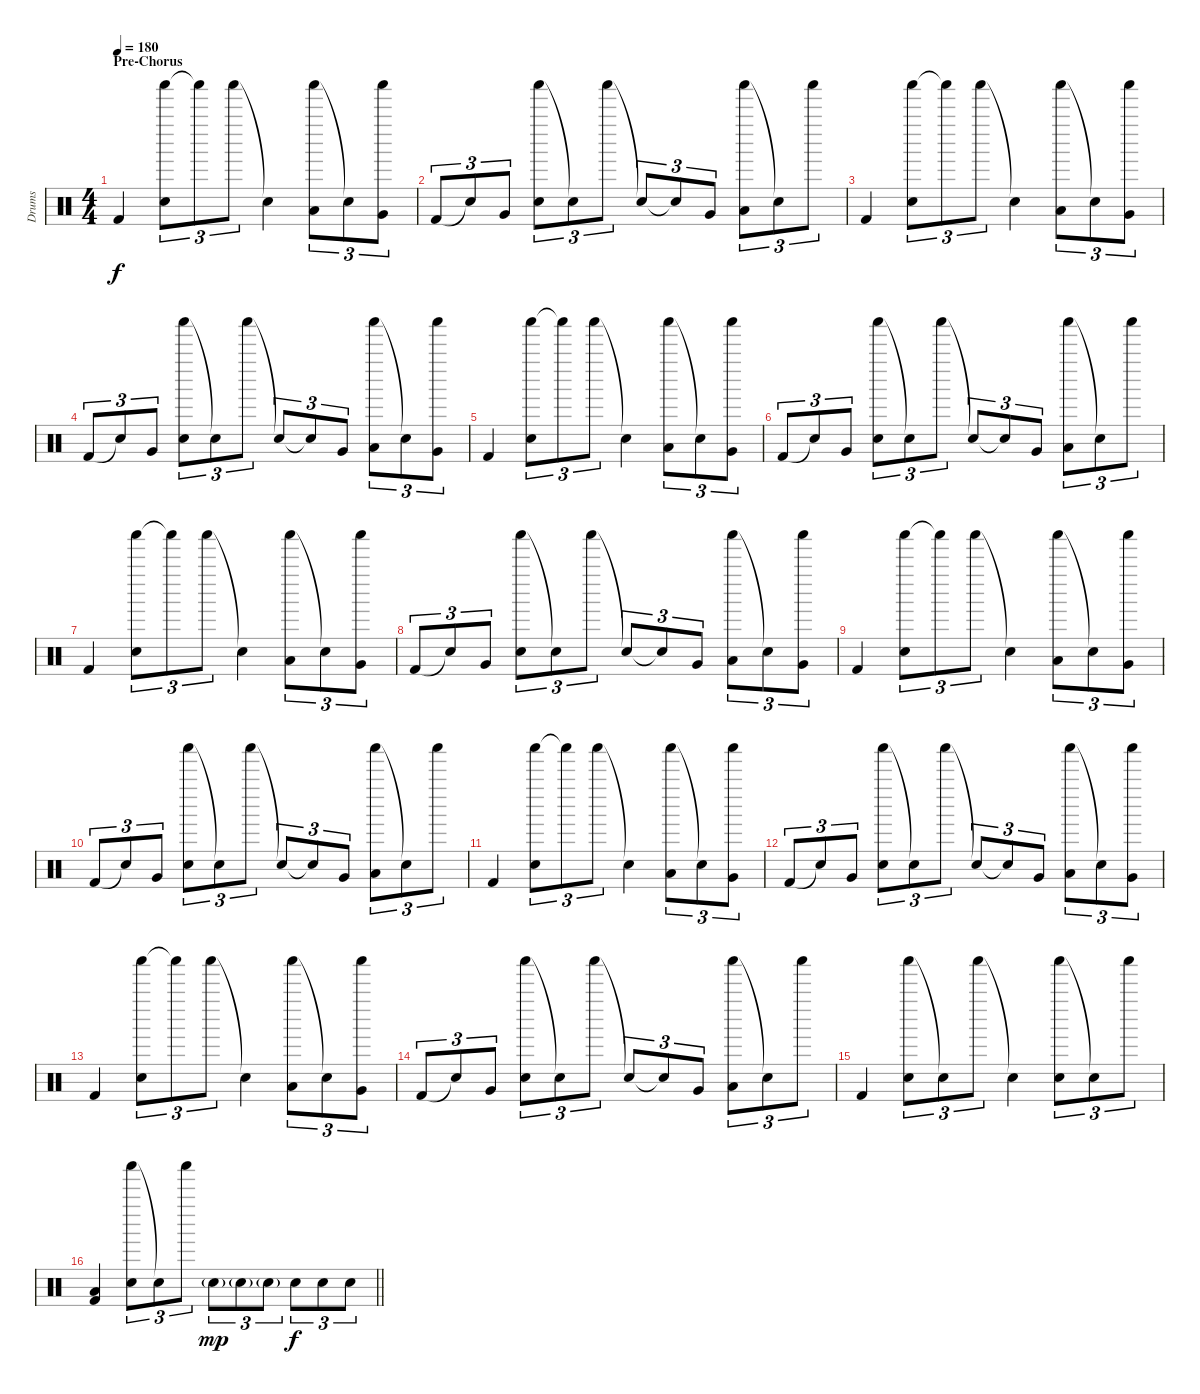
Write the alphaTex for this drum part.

\track ("Drums" "Drums") {instrument percussion}
\staff {score}
\articulation defaults
\ts (4 4)
\section ("" "Pre-Chorus")
\tempo 180
\clef neutral
\ks c "Kick (hit) 2".4{dy f}
("Shaker (hit)" "Electric Snare (hit)").8{tu (3 2)} "Shaker (hit)"{t}.8{tu (3 2)} "Shaker (hit)".8{tu (3 2)} "Snare (hit)"{t}.4 ("Shaker (hit)" "Low Tom (hit)").8{tu (3 2)} "Snare (hit)"{t}.8{tu (3 2)} ("Shaker (hit)" "Very Low Tom (hit)").8{tu (3 2)} |
"Kick (hit) 2".8{tu (3 2)} "Snare (hit)"{t}.8{tu (3 2)} "Very Low Tom (hit)".8{tu (3 2)} ("Shaker (hit)" "Electric Snare (hit)").8{tu (3 2)} "Snare (hit)"{t}.8{tu (3 2)} "Shaker (hit)".8{tu (3 2)} "Snare (hit)"{t}.8{tu (3 2)} "Snare (hit)"{t}.8{tu (3 2)} "Very Low Tom (hit)".8{tu (3 2)} ("Shaker (hit)" "Low Tom (hit)").8{tu (3 2)} "Snare (hit)"{t}.8{tu (3 2)} "Shaker (hit)".8{tu (3 2)} |
"Kick (hit) 2".4 ("Shaker (hit)" "Electric Snare (hit)").8{tu (3 2)} "Shaker (hit)"{t}.8{tu (3 2)} "Shaker (hit)".8{tu (3 2)} "Snare (hit)"{t}.4 ("Shaker (hit)" "Low Tom (hit)").8{tu (3 2)} "Snare (hit)"{t}.8{tu (3 2)} ("Shaker (hit)" "Very Low Tom (hit)").8{tu (3 2)} |
"Kick (hit) 2".8{tu (3 2)} "Snare (hit)"{t}.8{tu (3 2)} "Very Low Tom (hit)".8{tu (3 2)} ("Shaker (hit)" "Electric Snare (hit)").8{tu (3 2)} "Snare (hit)"{t}.8{tu (3 2)} "Shaker (hit)".8{tu (3 2)} "Snare (hit)"{t}.8{tu (3 2)} "Snare (hit)"{t}.8{tu (3 2)} "Very Low Tom (hit)".8{tu (3 2)} ("Shaker (hit)" "Low Tom (hit)").8{tu (3 2)} "Snare (hit)"{t}.8{tu (3 2)} ("Shaker (hit)" "Very Low Tom (hit)").8{tu (3 2)} |
"Kick (hit) 2".4 ("Shaker (hit)" "Electric Snare (hit)").8{tu (3 2)} "Shaker (hit)"{t}.8{tu (3 2)} "Shaker (hit)".8{tu (3 2)} "Snare (hit)"{t}.4 ("Shaker (hit)" "Low Tom (hit)").8{tu (3 2)} "Snare (hit)"{t}.8{tu (3 2)} ("Shaker (hit)" "Very Low Tom (hit)").8{tu (3 2)} |
"Kick (hit) 2".8{tu (3 2)} "Snare (hit)"{t}.8{tu (3 2)} "Very Low Tom (hit)".8{tu (3 2)} ("Shaker (hit)" "Electric Snare (hit)").8{tu (3 2)} "Snare (hit)"{t}.8{tu (3 2)} "Shaker (hit)".8{tu (3 2)} "Snare (hit)"{t}.8{tu (3 2)} "Snare (hit)"{t}.8{tu (3 2)} "Very Low Tom (hit)".8{tu (3 2)} ("Shaker (hit)" "Low Tom (hit)").8{tu (3 2)} "Snare (hit)"{t}.8{tu (3 2)} "Shaker (hit)".8{tu (3 2)} |
"Kick (hit) 2".4 ("Shaker (hit)" "Electric Snare (hit)").8{tu (3 2)} "Shaker (hit)"{t}.8{tu (3 2)} "Shaker (hit)".8{tu (3 2)} "Snare (hit)"{t}.4 ("Shaker (hit)" "Low Tom (hit)").8{tu (3 2)} "Snare (hit)"{t}.8{tu (3 2)} ("Shaker (hit)" "Very Low Tom (hit)").8{tu (3 2)} |
"Kick (hit) 2".8{tu (3 2)} "Snare (hit)"{t}.8{tu (3 2)} "Very Low Tom (hit)".8{tu (3 2)} ("Shaker (hit)" "Electric Snare (hit)").8{tu (3 2)} "Snare (hit)"{t}.8{tu (3 2)} "Shaker (hit)".8{tu (3 2)} "Snare (hit)"{t}.8{tu (3 2)} "Snare (hit)"{t}.8{tu (3 2)} "Very Low Tom (hit)".8{tu (3 2)} ("Shaker (hit)" "Low Tom (hit)").8{tu (3 2)} "Snare (hit)"{t}.8{tu (3 2)} ("Shaker (hit)" "Very Low Tom (hit)").8{tu (3 2)} |
"Kick (hit) 2".4 ("Shaker (hit)" "Electric Snare (hit)").8{tu (3 2)} "Shaker (hit)"{t}.8{tu (3 2)} "Shaker (hit)".8{tu (3 2)} "Snare (hit)"{t}.4 ("Shaker (hit)" "Low Tom (hit)").8{tu (3 2)} "Snare (hit)"{t}.8{tu (3 2)} ("Shaker (hit)" "Very Low Tom (hit)").8{tu (3 2)} |
"Kick (hit) 2".8{tu (3 2)} "Snare (hit)"{t}.8{tu (3 2)} "Very Low Tom (hit)".8{tu (3 2)} ("Shaker (hit)" "Electric Snare (hit)").8{tu (3 2)} "Snare (hit)"{t}.8{tu (3 2)} "Shaker (hit)".8{tu (3 2)} "Snare (hit)"{t}.8{tu (3 2)} "Snare (hit)"{t}.8{tu (3 2)} "Very Low Tom (hit)".8{tu (3 2)} ("Shaker (hit)" "Low Tom (hit)").8{tu (3 2)} "Snare (hit)"{t}.8{tu (3 2)} "Shaker (hit)".8{tu (3 2)} |
"Kick (hit) 2".4 ("Shaker (hit)" "Electric Snare (hit)").8{tu (3 2)} "Shaker (hit)"{t}.8{tu (3 2)} "Shaker (hit)".8{tu (3 2)} "Snare (hit)"{t}.4 ("Shaker (hit)" "Low Tom (hit)").8{tu (3 2)} "Snare (hit)"{t}.8{tu (3 2)} ("Shaker (hit)" "Very Low Tom (hit)").8{tu (3 2)} |
"Kick (hit) 2".8{tu (3 2)} "Snare (hit)"{t}.8{tu (3 2)} "Very Low Tom (hit)".8{tu (3 2)} ("Shaker (hit)" "Electric Snare (hit)").8{tu (3 2)} "Snare (hit)"{t}.8{tu (3 2)} "Shaker (hit)".8{tu (3 2)} "Snare (hit)"{t}.8{tu (3 2)} "Snare (hit)"{t}.8{tu (3 2)} "Very Low Tom (hit)".8{tu (3 2)} ("Shaker (hit)" "Low Tom (hit)").8{tu (3 2)} "Snare (hit)"{t}.8{tu (3 2)} ("Shaker (hit)" "Very Low Tom (hit)").8{tu (3 2)} |
"Kick (hit) 2".4 ("Shaker (hit)" "Electric Snare (hit)").8{tu (3 2)} "Shaker (hit)"{t}.8{tu (3 2)} "Shaker (hit)".8{tu (3 2)} "Snare (hit)"{t}.4 ("Shaker (hit)" "Low Tom (hit)").8{tu (3 2)} "Snare (hit)"{t}.8{tu (3 2)} ("Shaker (hit)" "Very Low Tom (hit)").8{tu (3 2)} |
"Kick (hit) 2".8{tu (3 2)} "Snare (hit)"{t}.8{tu (3 2)} "Very Low Tom (hit)".8{tu (3 2)} ("Shaker (hit)" "Electric Snare (hit)").8{tu (3 2)} "Snare (hit)"{t}.8{tu (3 2)} "Shaker (hit)".8{tu (3 2)} "Snare (hit)"{t}.8{tu (3 2)} "Snare (hit)"{t}.8{tu (3 2)} "Very Low Tom (hit)".8{tu (3 2)} ("Shaker (hit)" "Low Tom (hit)").8{tu (3 2)} "Snare (hit)"{t}.8{tu (3 2)} "Shaker (hit)".8{tu (3 2)} |
"Kick (hit) 2".4 ("Shaker (hit)" "Electric Snare (hit)").8{tu (3 2)} "Snare (hit)"{t}.8{tu (3 2)} "Shaker (hit)".8{tu (3 2)} "Snare (hit)"{t}.4 ("Shaker (hit)" "Electric Snare (hit)").8{tu (3 2)} "Snare (hit)"{t}.8{tu (3 2)} "Shaker (hit)".8{tu (3 2)} |
\barLineRight lightlight
("Low Tom (hit)" "Kick (hit) 2").4 ("Shaker (hit)" "Electric Snare (hit)").8{tu (3 2)} "Snare (hit)"{t}.8{tu (3 2)} "Shaker (hit)".8{tu (3 2)} "Electric Snare (hit)"{g}.8{tu (3 2) dy mp} "Electric Snare (hit)"{g}.8{tu (3 2)} "Electric Snare (hit)"{g}.8{tu (3 2)} "Electric Snare (hit)".8{tu (3 2) dy f} "Electric Snare (hit)".8{tu (3 2)} "Electric Snare (hit)".8{tu (3 2)}
